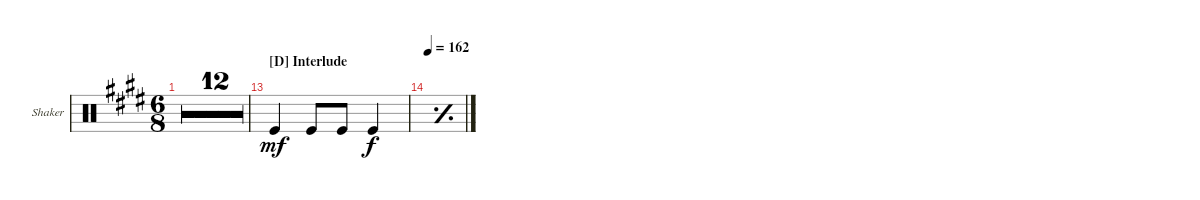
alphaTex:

\defaultSystemsLayout 4
\bracketExtendMode groupsimilarinstruments
\firstSystemTrackNameOrientation horizontal
\otherSystemsTrackNameOrientation horizontal
\track ("Shaker 2" "Shaker") {multiBarRest instrument percussion}
\staff {score}
\articulation defaults
\ts (6 8)
\tempo 162
\clef neutral
\ks e
r.2{d dy f} |
r.2{d} |
r.2{d} |
\ts (3 4)
r.2{d} |
\ts (6 8)
r.2{d} |
r.2{d} |
r.2{d} |
\ts (3 4)
r.2{d} |
\ts (6 8)
r.2{d} |
r.2{d} |
r.2{d} |
\ts (3 4)
r.2{d} |
\section ("D" "Interlude")
"Kick (hit)".4{dy mf} "Kick (hit)".8 "Kick (hit)".8 "Kick (hit)".4{dy f} |
\tempo 162
\simile simple
